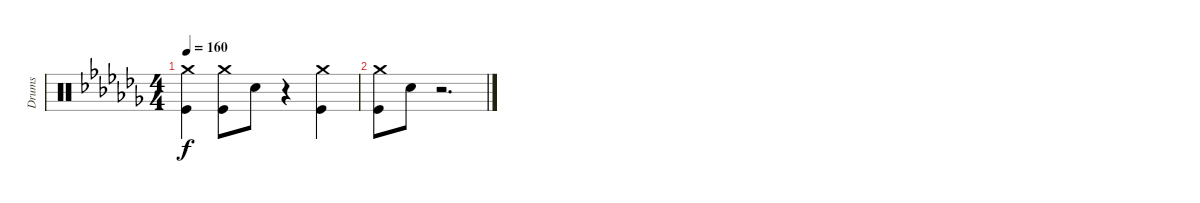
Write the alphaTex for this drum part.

\track ("Drums" "Drums") {instrument percussion}
\staff {score}
\articulation defaults
\ts (4 4)
\tempo 160
\clef neutral
\ks cb
("Crash medium (hit)" "Kick (hit)").4{dy f} ("Crash medium (hit)" "Kick (hit)").8 "Electric Snare (hit)".8 r.4 ("Crash medium (hit)" "Kick (hit)").4 |
("Crash medium (hit)" "Kick (hit)").8 "Electric Snare (hit)".8 r.2{d}
